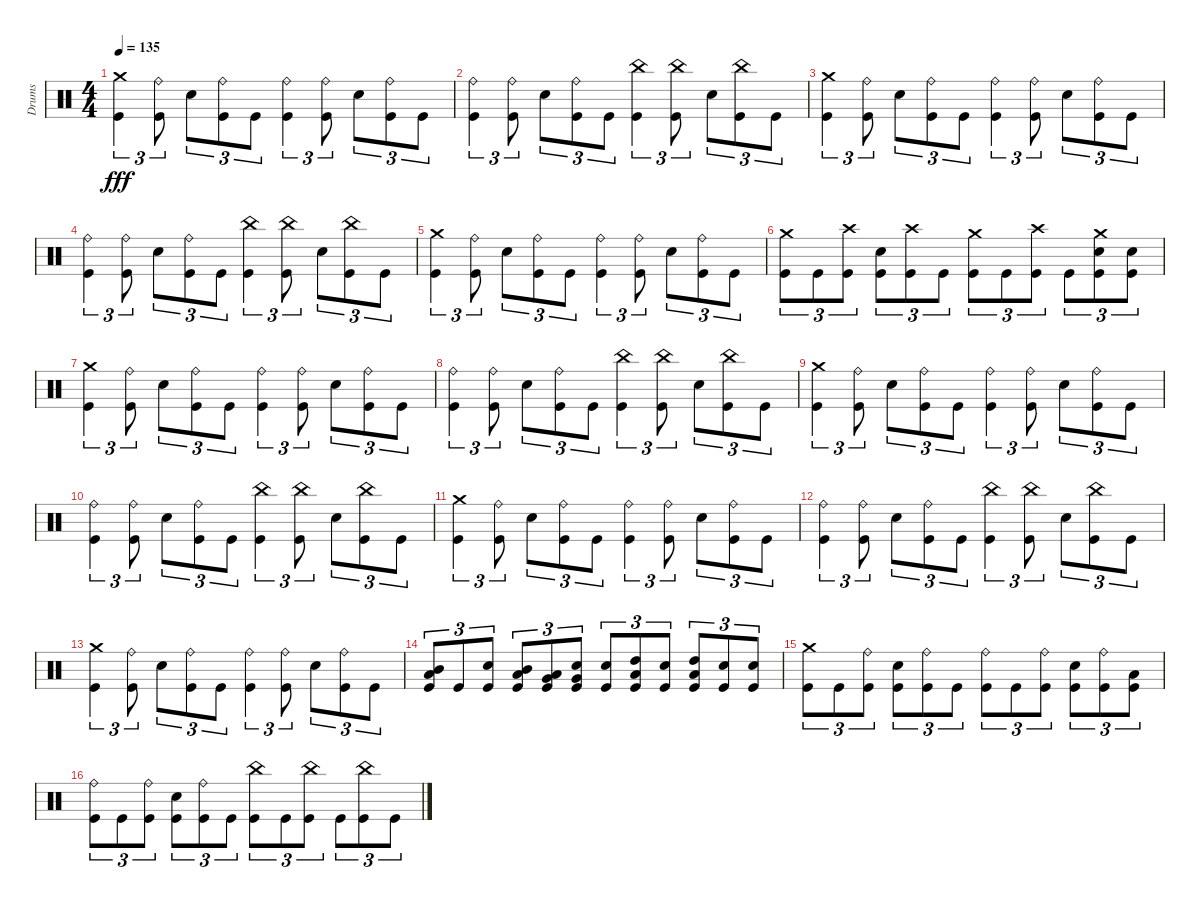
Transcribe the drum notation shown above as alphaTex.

\track ("Drums" "Drums") {instrument percussion}
\staff {score}
\articulation defaults
\ts (4 4)
\tempo 135
\clef neutral
\ks c
("Crash medium (hit)" "Kick (hit)").4{tu (3 2) dy fff} ("Ride (bell)" "Kick (hit)").8{tu (3 2)} "Snare (hit) 2".8{tu (3 2)} ("Ride (bell)" "Kick (hit)").8{tu (3 2)} "Kick (hit)".8{tu (3 2)} ("Ride (bell)" "Kick (hit)").4{tu (3 2)} ("Ride (bell)" "Kick (hit)").8{tu (3 2)} "Snare (hit) 2".8{tu (3 2)} ("Ride (bell)" "Kick (hit)").8{tu (3 2)} "Kick (hit)".8{tu (3 2)} |
("Ride (bell)" "Kick (hit)").4{tu (3 2)} ("Ride (bell)" "Kick (hit)").8{tu (3 2)} "Snare (hit) 2".8{tu (3 2)} ("Ride (bell)" "Kick (hit)").8{tu (3 2)} "Kick (hit)".8{tu (3 2)} ("China (hit)" "Kick (hit)").4{tu (3 2)} ("China (hit)" "Kick (hit)").8{tu (3 2)} "Snare (hit) 2".8{tu (3 2)} ("China (hit)" "Kick (hit)").8{tu (3 2)} "Kick (hit)".8{tu (3 2)} |
("Crash medium (hit)" "Kick (hit)").4{tu (3 2)} ("Ride (bell)" "Kick (hit)").8{tu (3 2)} "Snare (hit) 2".8{tu (3 2)} ("Ride (bell)" "Kick (hit)").8{tu (3 2)} "Kick (hit)".8{tu (3 2)} ("Ride (bell)" "Kick (hit)").4{tu (3 2)} ("Ride (bell)" "Kick (hit)").8{tu (3 2)} "Snare (hit) 2".8{tu (3 2)} ("Ride (bell)" "Kick (hit)").8{tu (3 2)} "Kick (hit)".8{tu (3 2)} |
("Ride (bell)" "Kick (hit)").4{tu (3 2)} ("Ride (bell)" "Kick (hit)").8{tu (3 2)} "Snare (hit) 2".8{tu (3 2)} ("Ride (bell)" "Kick (hit)").8{tu (3 2)} "Kick (hit)".8{tu (3 2)} ("China (hit)" "Kick (hit)").4{tu (3 2)} ("China (hit)" "Kick (hit)").8{tu (3 2)} "Snare (hit) 2".8{tu (3 2)} ("China (hit)" "Kick (hit)").8{tu (3 2)} "Kick (hit)".8{tu (3 2)} |
("Crash medium (hit)" "Kick (hit)").4{tu (3 2)} ("Ride (bell)" "Kick (hit)").8{tu (3 2)} "Snare (hit) 2".8{tu (3 2)} ("Ride (bell)" "Kick (hit)").8{tu (3 2)} "Kick (hit)".8{tu (3 2)} ("Ride (bell)" "Kick (hit)").4{tu (3 2)} ("Ride (bell)" "Kick (hit)").8{tu (3 2)} "Snare (hit) 2".8{tu (3 2)} ("Ride (bell)" "Kick (hit)").8{tu (3 2)} "Kick (hit)".8{tu (3 2)} |
("Crash medium (hit)" "Kick (hit)").8{tu (3 2)} "Kick (hit)".8{tu (3 2)} ("Crash high (hit)" "Kick (hit)").8{tu (3 2)} ("Snare (hit) 2" "Kick (hit)").8{tu (3 2)} ("Crash high (hit)" "Kick (hit)").8{tu (3 2)} "Kick (hit)".8{tu (3 2)} ("Crash medium (hit)" "Kick (hit)").8{tu (3 2)} "Kick (hit)".8{tu (3 2)} ("Crash high (hit)" "Kick (hit)").8{tu (3 2)} "Kick (hit)".8{tu (3 2)} ("Crash medium (hit)" "Snare (hit) 2" "Kick (hit)").8{tu (3 2)} ("Snare (hit) 2" "Kick (hit)").8{tu (3 2)} |
("Crash medium (hit)" "Kick (hit)").4{tu (3 2)} ("Ride (bell)" "Kick (hit)").8{tu (3 2)} "Snare (hit) 2".8{tu (3 2)} ("Ride (bell)" "Kick (hit)").8{tu (3 2)} "Kick (hit)".8{tu (3 2)} ("Ride (bell)" "Kick (hit)").4{tu (3 2)} ("Ride (bell)" "Kick (hit)").8{tu (3 2)} "Snare (hit) 2".8{tu (3 2)} ("Ride (bell)" "Kick (hit)").8{tu (3 2)} "Kick (hit)".8{tu (3 2)} |
("Ride (bell)" "Kick (hit)").4{tu (3 2)} ("Ride (bell)" "Kick (hit)").8{tu (3 2)} "Snare (hit) 2".8{tu (3 2)} ("Ride (bell)" "Kick (hit)").8{tu (3 2)} "Kick (hit)".8{tu (3 2)} ("China (hit)" "Kick (hit)").4{tu (3 2)} ("China (hit)" "Kick (hit)").8{tu (3 2)} "Snare (hit) 2".8{tu (3 2)} ("China (hit)" "Kick (hit)").8{tu (3 2)} "Kick (hit)".8{tu (3 2)} |
("Crash medium (hit)" "Kick (hit)").4{tu (3 2)} ("Ride (bell)" "Kick (hit)").8{tu (3 2)} "Snare (hit) 2".8{tu (3 2)} ("Ride (bell)" "Kick (hit)").8{tu (3 2)} "Kick (hit)".8{tu (3 2)} ("Ride (bell)" "Kick (hit)").4{tu (3 2)} ("Ride (bell)" "Kick (hit)").8{tu (3 2)} "Snare (hit) 2".8{tu (3 2)} ("Ride (bell)" "Kick (hit)").8{tu (3 2)} "Kick (hit)".8{tu (3 2)} |
("Ride (bell)" "Kick (hit)").4{tu (3 2)} ("Ride (bell)" "Kick (hit)").8{tu (3 2)} "Snare (hit) 2".8{tu (3 2)} ("Ride (bell)" "Kick (hit)").8{tu (3 2)} "Kick (hit)".8{tu (3 2)} ("China (hit)" "Kick (hit)").4{tu (3 2)} ("China (hit)" "Kick (hit)").8{tu (3 2)} "Snare (hit) 2".8{tu (3 2)} ("China (hit)" "Kick (hit)").8{tu (3 2)} "Kick (hit)".8{tu (3 2)} |
("Crash medium (hit)" "Kick (hit)").4{tu (3 2)} ("Ride (bell)" "Kick (hit)").8{tu (3 2)} "Snare (hit) 2".8{tu (3 2)} ("Ride (bell)" "Kick (hit)").8{tu (3 2)} "Kick (hit)".8{tu (3 2)} ("Ride (bell)" "Kick (hit)").4{tu (3 2)} ("Ride (bell)" "Kick (hit)").8{tu (3 2)} "Snare (hit) 2".8{tu (3 2)} ("Ride (bell)" "Kick (hit)").8{tu (3 2)} "Kick (hit)".8{tu (3 2)} |
("Ride (bell)" "Kick (hit)").4{tu (3 2)} ("Ride (bell)" "Kick (hit)").8{tu (3 2)} "Snare (hit) 2".8{tu (3 2)} ("Ride (bell)" "Kick (hit)").8{tu (3 2)} "Kick (hit)".8{tu (3 2)} ("China (hit)" "Kick (hit)").4{tu (3 2)} ("China (hit)" "Kick (hit)").8{tu (3 2)} "Snare (hit) 2".8{tu (3 2)} ("China (hit)" "Kick (hit)").8{tu (3 2)} "Kick (hit)".8{tu (3 2)} |
("Crash medium (hit)" "Kick (hit)").4{tu (3 2)} ("Ride (bell)" "Kick (hit)").8{tu (3 2)} "Snare (hit) 2".8{tu (3 2)} ("Ride (bell)" "Kick (hit)").8{tu (3 2)} "Kick (hit)".8{tu (3 2)} ("Ride (bell)" "Kick (hit)").4{tu (3 2)} ("Ride (bell)" "Kick (hit)").8{tu (3 2)} "Snare (hit) 2".8{tu (3 2)} ("Ride (bell)" "Kick (hit)").8{tu (3 2)} "Kick (hit)".8{tu (3 2)} |
("Mid Tom (hit)" "Low Tom (hit)" "Kick (hit)").8{tu (3 2)} "Kick (hit)".8{tu (3 2)} ("Snare (hit) 2" "Kick (hit)").8{tu (3 2)} ("Mid Tom (hit)" "Low Tom (hit)" "Kick (hit)").8{tu (3 2)} ("Low Tom (hit)" "Very Low Tom (hit)" "Kick (hit)").8{tu (3 2)} ("Very Low Tom (hit)" "Snare (hit)" "Kick (hit)").8{tu (3 2)} ("Snare (hit) 2" "Kick (hit)").8{tu (3 2)} ("High Tom (hit)" "Low Tom (hit)" "Kick (hit)").8{tu (3 2)} ("Snare (hit) 2" "Kick (hit)").8{tu (3 2)} ("High Tom (hit)" "Low Tom (hit)" "Kick (hit)").8{tu (3 2)} ("Snare (hit) 2" "Kick (hit)").8{tu (3 2)} ("Snare (hit) 2" "Kick (hit)").8{tu (3 2)} |
("Crash medium (hit)" "Kick (hit)").8{tu (3 2)} "Kick (hit)".8{tu (3 2)} ("Ride (bell)" "Kick (hit)").8{tu (3 2)} ("Snare (hit) 2" "Kick (hit)").8{tu (3 2)} ("Ride (bell)" "Kick (hit)").8{tu (3 2)} "Kick (hit)".8{tu (3 2)} ("Ride (bell)" "Kick (hit)").8{tu (3 2)} "Kick (hit)".8{tu (3 2)} ("Ride (bell)" "Kick (hit)").8{tu (3 2)} ("Snare (hit) 2" "Kick (hit)").8{tu (3 2)} ("Ride (bell)" "Kick (hit)").8{tu (3 2)} ("Low Tom (hit)" "Kick (hit)").8{tu (3 2)} |
("Ride (bell)" "Kick (hit)").8{tu (3 2)} "Kick (hit)".8{tu (3 2)} ("Ride (bell)" "Kick (hit)").8{tu (3 2)} ("Snare (hit) 2" "Kick (hit)").8{tu (3 2)} ("Ride (bell)" "Kick (hit)").8{tu (3 2)} "Kick (hit)".8{tu (3 2)} ("China (hit)" "Kick (hit)").8{tu (3 2)} "Kick (hit)".8{tu (3 2)} ("China (hit)" "Kick (hit)").8{tu (3 2)} "Kick (hit)".8{tu (3 2)} ("China (hit)" "Kick (hit)").8{tu (3 2)} "Kick (hit)".8{tu (3 2)}
